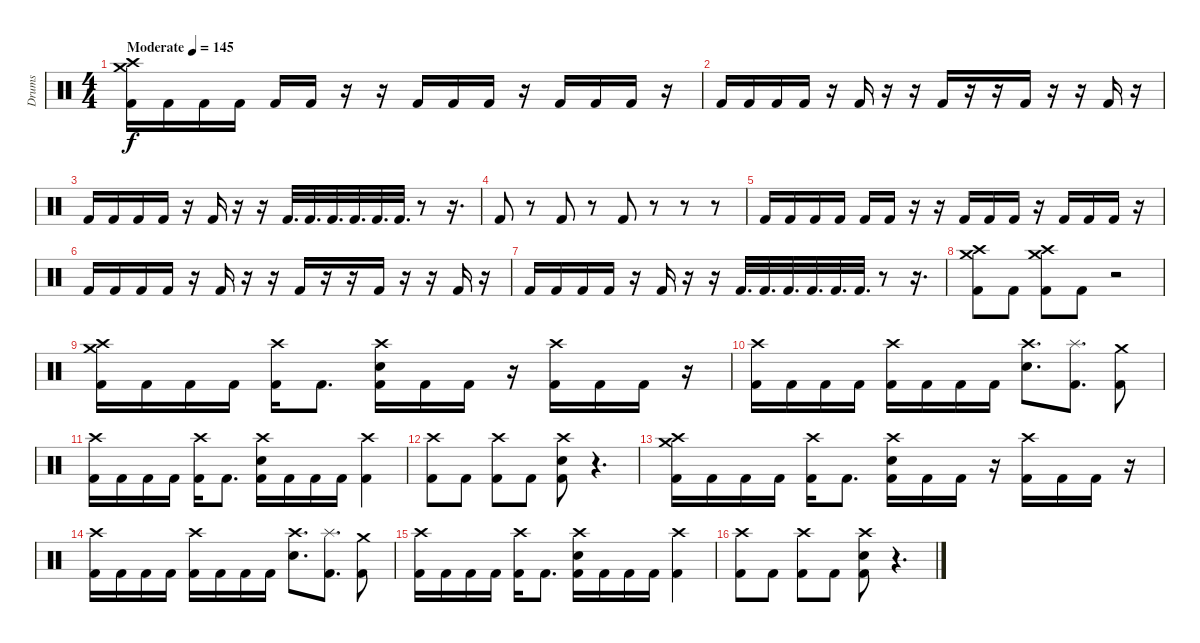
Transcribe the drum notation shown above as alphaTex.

\track ("Drums" "Drums") {instrument percussion}
\staff {score}
\articulation defaults
\ts (4 4)
\tempo (145 "Moderate")
\clef neutral
\ks c
("Crash high (hit)" "Crash medium (hit)" "Kick (hit) 2").16{dy f} "Kick (hit) 2".16 "Kick (hit) 2".16 "Kick (hit) 2".16 "Kick (hit) 2".16 "Kick (hit) 2".16 r.16 r.16 "Kick (hit) 2".16 "Kick (hit) 2".16 "Kick (hit) 2".16 r.16 "Kick (hit) 2".16 "Kick (hit) 2".16 "Kick (hit) 2".16 r.16 |
"Kick (hit) 2".16 "Kick (hit) 2".16 "Kick (hit) 2".16 "Kick (hit) 2".16 r.16 "Kick (hit) 2".16 r.16 r.16 "Kick (hit) 2".16 r.16 r.16 "Kick (hit) 2".16 r.16 r.16 "Kick (hit) 2".16 r.16 |
"Kick (hit) 2".16 "Kick (hit) 2".16 "Kick (hit) 2".16 "Kick (hit) 2".16 r.16 "Kick (hit) 2".16 r.16 r.16 "Kick (hit) 2".32{d} "Kick (hit) 2".32{d} "Kick (hit) 2".32{d} "Kick (hit) 2".32{d} "Kick (hit) 2".32{d} "Kick (hit) 2".32{d} r.8 r.16{d} |
"Kick (hit) 2".8 r.8 "Kick (hit) 2".8 r.8 "Kick (hit) 2".8 r.8 r.8 r.8 |
"Kick (hit) 2".16 "Kick (hit) 2".16 "Kick (hit) 2".16 "Kick (hit) 2".16 "Kick (hit) 2".16 "Kick (hit) 2".16 r.16 r.16 "Kick (hit) 2".16 "Kick (hit) 2".16 "Kick (hit) 2".16 r.16 "Kick (hit) 2".16 "Kick (hit) 2".16 "Kick (hit) 2".16 r.16 |
"Kick (hit) 2".16 "Kick (hit) 2".16 "Kick (hit) 2".16 "Kick (hit) 2".16 r.16 "Kick (hit) 2".16 r.16 r.16 "Kick (hit) 2".16 r.16 r.16 "Kick (hit) 2".16 r.16 r.16 "Kick (hit) 2".16 r.16 |
"Kick (hit) 2".16 "Kick (hit) 2".16 "Kick (hit) 2".16 "Kick (hit) 2".16 r.16 "Kick (hit) 2".16 r.16 r.16 "Kick (hit) 2".32{d} "Kick (hit) 2".32{d} "Kick (hit) 2".32{d} "Kick (hit) 2".32{d} "Kick (hit) 2".32{d} "Kick (hit) 2".32{d} r.8 r.16{d} |
("Crash high (hit)" "Crash medium (hit)" "Kick (hit) 2").8 "Kick (hit) 2".8 ("Crash high (hit)" "Crash medium (hit)" "Kick (hit) 2").8 "Kick (hit) 2".8 r.2 |
("Crash high (hit)" "Crash medium (hit)" "Kick (hit) 2").16 "Kick (hit) 2".16 "Kick (hit) 2".16 "Kick (hit) 2".16 ("Crash high (hit)" "Kick (hit) 2").16 "Kick (hit) 2".8{d} ("Crash high (hit)" "Electric Snare (hit)" "Kick (hit) 2").16 "Kick (hit) 2".16 "Kick (hit) 2".16 r.16 ("Crash high (hit)" "Kick (hit) 2").16 "Kick (hit) 2".16 "Kick (hit) 2".16 r.16 |
("Crash high (hit)" "Kick (hit) 2").16 "Kick (hit) 2".16 "Kick (hit) 2".16 "Kick (hit) 2".16 ("Crash high (hit)" "Kick (hit) 2").16 "Kick (hit) 2".16 "Kick (hit) 2".16 "Kick (hit) 2".16 ("Crash high (hit)" "Electric Snare (hit)").8{d} ("Splash (hit)" "Kick (hit) 2").8{d} ("Crash medium (hit)" "Kick (hit) 2").8 |
("Crash high (hit)" "Kick (hit) 2").16 "Kick (hit) 2".16 "Kick (hit) 2".16 "Kick (hit) 2".16 ("Crash high (hit)" "Kick (hit) 2").16 "Kick (hit) 2".8{d} ("Crash high (hit)" "Electric Snare (hit)" "Kick (hit) 2").16 "Kick (hit) 2".16 "Kick (hit) 2".16 "Kick (hit) 2".16 ("Crash high (hit)" "Kick (hit) 2").4 |
("Crash high (hit)" "Kick (hit) 2").8 "Kick (hit) 2".8 ("Crash high (hit)" "Kick (hit) 2").8 "Kick (hit) 2".8 ("Crash high (hit)" "Electric Snare (hit)" "Kick (hit) 2").8 r.4{d} |
("Crash high (hit)" "Crash medium (hit)" "Kick (hit) 2").16 "Kick (hit) 2".16 "Kick (hit) 2".16 "Kick (hit) 2".16 ("Crash high (hit)" "Kick (hit) 2").16 "Kick (hit) 2".8{d} ("Crash high (hit)" "Electric Snare (hit)" "Kick (hit) 2").16 "Kick (hit) 2".16 "Kick (hit) 2".16 r.16 ("Crash high (hit)" "Kick (hit) 2").16 "Kick (hit) 2".16 "Kick (hit) 2".16 r.16 |
("Crash high (hit)" "Kick (hit) 2").16 "Kick (hit) 2".16 "Kick (hit) 2".16 "Kick (hit) 2".16 ("Crash high (hit)" "Kick (hit) 2").16 "Kick (hit) 2".16 "Kick (hit) 2".16 "Kick (hit) 2".16 ("Crash high (hit)" "Electric Snare (hit)").8{d} ("Splash (hit)" "Kick (hit) 2").8{d} ("Crash medium (hit)" "Kick (hit) 2").8 |
("Crash high (hit)" "Kick (hit) 2").16 "Kick (hit) 2".16 "Kick (hit) 2".16 "Kick (hit) 2".16 ("Crash high (hit)" "Kick (hit) 2").16 "Kick (hit) 2".8{d} ("Crash high (hit)" "Electric Snare (hit)" "Kick (hit) 2").16 "Kick (hit) 2".16 "Kick (hit) 2".16 "Kick (hit) 2".16 ("Crash high (hit)" "Kick (hit) 2").4 |
("Crash high (hit)" "Kick (hit) 2").8 "Kick (hit) 2".8 ("Crash high (hit)" "Kick (hit) 2").8 "Kick (hit) 2".8 ("Crash high (hit)" "Electric Snare (hit)" "Kick (hit) 2").8 r.4{d}
